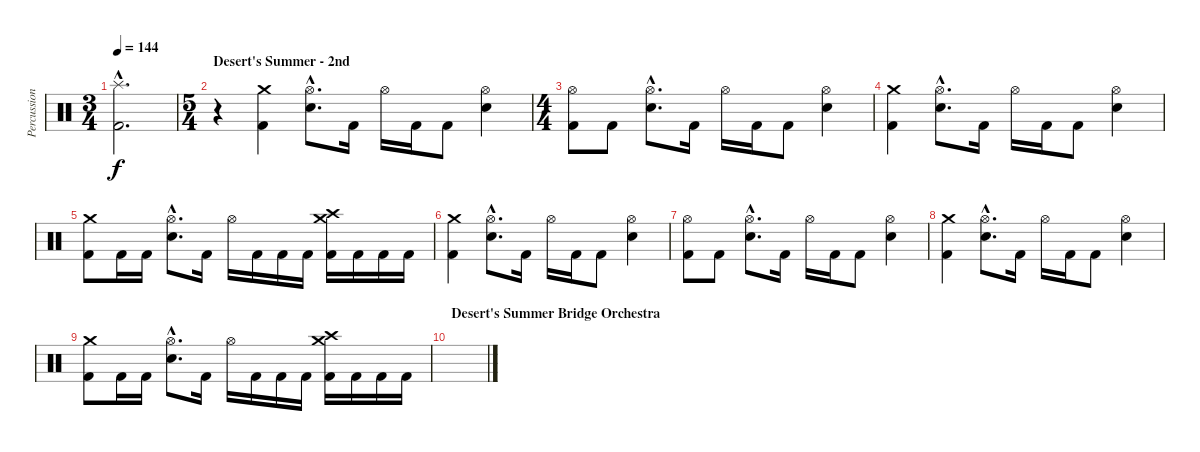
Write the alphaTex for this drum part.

\track ("Percussion" "Percussion") {instrument percussion}
\staff {score}
\articulation defaults
\ts (3 4)
\tempo 144
\clef neutral
\ks c
("Splash (hit)"{hac} "Kick (hit) 2"{hac}).2{d dy f} |
\ts (5 4)
\section ("" "Desert's Summer - 2nd")
r.4 ("Crash medium (hit)" "Kick (hit) 2").4 ("Hi-Hat (open)"{hac} "Electric Snare (hit)"{hac}).8{d} "Kick (hit) 2".16 "Hi-Hat (open)".16 "Kick (hit) 2".16 "Kick (hit) 2".8 ("Hi-Hat (open)" "Electric Snare (hit)").4 |
\ts (4 4)
("Hi-Hat (open)" "Kick (hit) 2").8 "Kick (hit) 2".8 ("Hi-Hat (open)"{hac} "Electric Snare (hit)"{hac}).8{d} "Kick (hit) 2".16 "Hi-Hat (open)".16 "Kick (hit) 2".16 "Kick (hit) 2".8 ("Hi-Hat (open)" "Electric Snare (hit)").4 |
("Crash medium (hit)" "Kick (hit) 2").4 ("Hi-Hat (open)"{hac} "Electric Snare (hit)"{hac}).8{d} "Kick (hit) 2".16 "Hi-Hat (open)".16 "Kick (hit) 2".16 "Kick (hit) 2".8 ("Hi-Hat (open)" "Electric Snare (hit)").4 |
("Crash medium (hit)" "Kick (hit) 2").8 "Kick (hit) 2".16 "Kick (hit) 2".16 ("Hi-Hat (open)"{hac} "Electric Snare (hit)"{hac}).8{d} "Kick (hit) 2".16 "Hi-Hat (open)".16 "Kick (hit) 2".16 "Kick (hit) 2".16 "Kick (hit) 2".16 ("Crash high (hit)" "Crash medium (hit)" "Kick (hit) 2").16 "Kick (hit) 2".16 "Kick (hit) 2".16 "Kick (hit) 2".16 |
("Crash medium (hit)" "Kick (hit) 2").4 ("Hi-Hat (open)"{hac} "Electric Snare (hit)"{hac}).8{d} "Kick (hit) 2".16 "Hi-Hat (open)".16 "Kick (hit) 2".16 "Kick (hit) 2".8 ("Hi-Hat (open)" "Electric Snare (hit)").4 |
("Hi-Hat (open)" "Kick (hit) 2").8 "Kick (hit) 2".8 ("Hi-Hat (open)"{hac} "Electric Snare (hit)"{hac}).8{d} "Kick (hit) 2".16 "Hi-Hat (open)".16 "Kick (hit) 2".16 "Kick (hit) 2".8 ("Hi-Hat (open)" "Electric Snare (hit)").4 |
("Crash medium (hit)" "Kick (hit) 2").4 ("Hi-Hat (open)"{hac} "Electric Snare (hit)"{hac}).8{d} "Kick (hit) 2".16 "Hi-Hat (open)".16 "Kick (hit) 2".16 "Kick (hit) 2".8 ("Hi-Hat (open)" "Electric Snare (hit)").4 |
("Crash medium (hit)" "Kick (hit) 2").8 "Kick (hit) 2".16 "Kick (hit) 2".16 ("Hi-Hat (open)"{hac} "Electric Snare (hit)"{hac}).8{d} "Kick (hit) 2".16 "Hi-Hat (open)".16 "Kick (hit) 2".16 "Kick (hit) 2".16 "Kick (hit) 2".16 ("Crash high (hit)" "Crash medium (hit)" "Kick (hit) 2").16 "Kick (hit) 2".16 "Kick (hit) 2".16 "Kick (hit) 2".16 |
\section ("" "Desert's Summer Bridge Orchestra")
